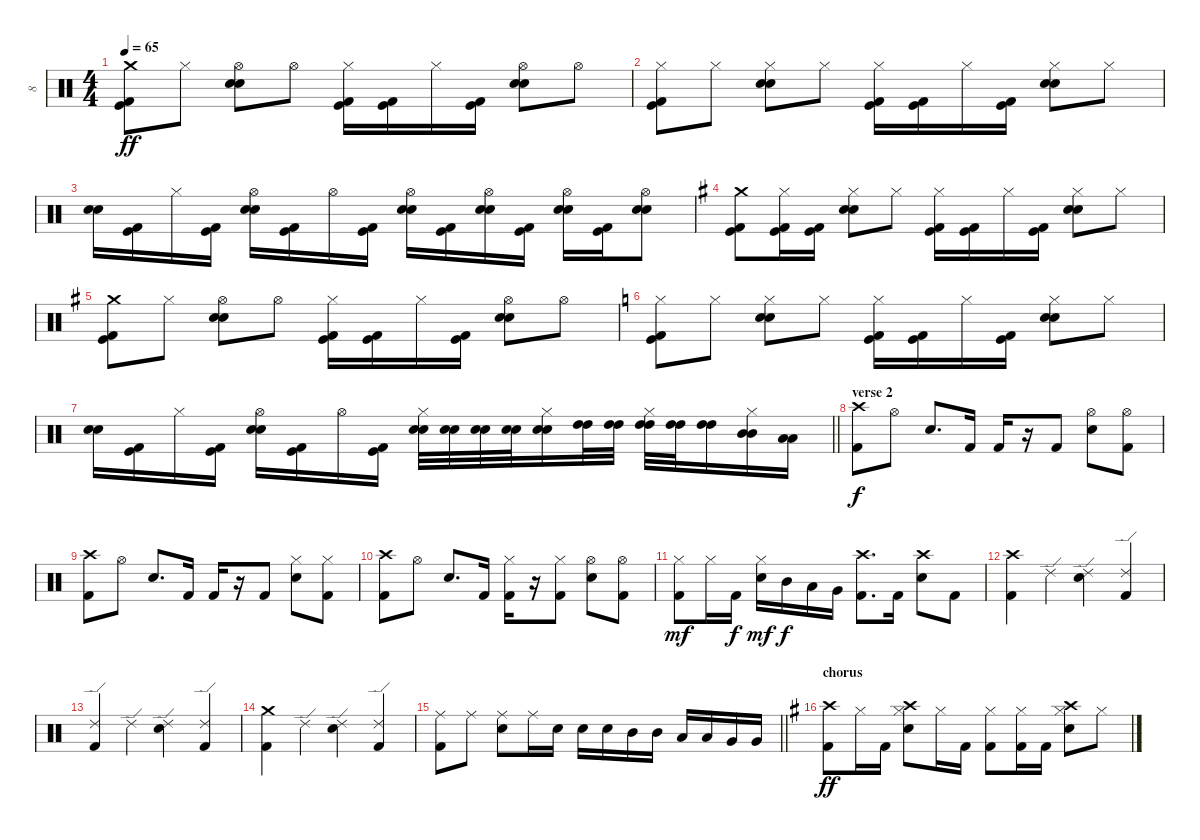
\track ("8" "8") {instrument percussion}
\staff {score}
\articulation defaults
\ts (4 4)
\tempo 65
\clef neutral
\ks c
("Crash medium (hit)" "Kick (hit) 2" "Kick (hit)").8{dy ff} "Hi-Hat (closed)".8 ("Hi-Hat (open)" "Snare (hit) 2" "Electric Snare (hit)").8 "Hi-Hat (open)".8 ("Hi-Hat (closed)" "Kick (hit)" "Kick (hit) 2").16 ("Kick (hit)" "Kick (hit) 2").16 "Hi-Hat (closed)".16 ("Kick (hit)" "Kick (hit) 2").16 ("Hi-Hat (open)" "Snare (hit) 2" "Electric Snare (hit)").8 "Hi-Hat (open)".8 |
("Hi-Hat (closed)" "Kick (hit)" "Kick (hit) 2").8 "Hi-Hat (closed)".8 ("Hi-Hat (closed)" "Snare (hit) 2" "Electric Snare (hit)").8 "Hi-Hat (closed)".8 ("Hi-Hat (closed)" "Kick (hit)" "Kick (hit) 2").16 ("Kick (hit)" "Kick (hit) 2").16 "Hi-Hat (closed)".16 ("Kick (hit)" "Kick (hit) 2").16 ("Hi-Hat (closed)" "Snare (hit) 2" "Electric Snare (hit)").8 "Hi-Hat (closed)".8 |
("Electric Snare (hit)" "Snare (hit) 2").16 ("Kick (hit)" "Kick (hit) 2").16 "Hi-Hat (closed)".16 ("Kick (hit)" "Kick (hit) 2").16 ("Hi-Hat (open)" "Snare (hit) 2" "Electric Snare (hit)").16 ("Kick (hit)" "Kick (hit) 2").16 "Hi-Hat (open)".16 ("Kick (hit)" "Kick (hit) 2").16 ("Hi-Hat (open)" "Electric Snare (hit)" "Snare (hit) 2").16 ("Kick (hit)" "Kick (hit) 2").16 ("Hi-Hat (open)" "Electric Snare (hit)" "Snare (hit) 2").16 ("Kick (hit)" "Kick (hit) 2").16 ("Hi-Hat (open)" "Electric Snare (hit)" "Snare (hit) 2").16 ("Kick (hit)" "Kick (hit) 2").16 ("Hi-Hat (open)" "Electric Snare (hit)" "Snare (hit) 2").8 |
\ks eminor
("Crash medium (hit)" "Kick (hit)" "Kick (hit) 2").8 ("Hi-Hat (closed)" "Kick (hit)" "Kick (hit) 2").16 ("Kick (hit)" "Kick (hit) 2").16 ("Hi-Hat (closed)" "Snare (hit) 2" "Electric Snare (hit)").8 "Hi-Hat (closed)".8 ("Hi-Hat (closed)" "Kick (hit)" "Kick (hit) 2").16 ("Kick (hit)" "Kick (hit) 2").16 "Hi-Hat (closed)".16 ("Kick (hit)" "Kick (hit) 2").16 ("Hi-Hat (closed)" "Snare (hit) 2" "Electric Snare (hit)").8 "Hi-Hat (closed)".8 |
("Crash medium (hit)" "Kick (hit) 2" "Kick (hit)").8 "Hi-Hat (closed)".8 ("Hi-Hat (open)" "Snare (hit) 2" "Electric Snare (hit)").8 "Hi-Hat (open)".8 ("Hi-Hat (closed)" "Kick (hit)" "Kick (hit) 2").16 ("Kick (hit)" "Kick (hit) 2").16 "Hi-Hat (closed)".16 ("Kick (hit)" "Kick (hit) 2").16 ("Hi-Hat (open)" "Snare (hit) 2" "Electric Snare (hit)").8 "Hi-Hat (open)".8 |
\ks c
("Hi-Hat (closed)" "Kick (hit)" "Kick (hit) 2").8 "Hi-Hat (closed)".8 ("Hi-Hat (closed)" "Snare (hit) 2" "Electric Snare (hit)").8 "Hi-Hat (closed)".8 ("Hi-Hat (closed)" "Kick (hit)" "Kick (hit) 2").16 ("Kick (hit)" "Kick (hit) 2").16 "Hi-Hat (closed)".16 ("Kick (hit)" "Kick (hit) 2").16 ("Hi-Hat (closed)" "Snare (hit) 2" "Electric Snare (hit)").8 "Hi-Hat (closed)".8 |
\barLineRight lightlight
("Electric Snare (hit)" "Snare (hit) 2").16 ("Kick (hit)" "Kick (hit) 2").16 "Hi-Hat (closed)".16 ("Kick (hit)" "Kick (hit) 2").16 ("Hi-Hat (open)" "Electric Snare (hit)" "Snare (hit) 2").16 ("Kick (hit)" "Kick (hit) 2").16 "Hi-Hat (open)".16 ("Kick (hit)" "Kick (hit) 2").16 ("Hi-Hat (closed)" "Snare (hit) 2" "Electric Snare (hit)").32 ("Snare (hit) 2" "Electric Snare (hit)").32 ("Snare (hit) 2" "Electric Snare (hit)").32 ("Snare (hit) 2" "Electric Snare (hit)").32 ("Hi-Hat (closed)" "Snare (hit) 2" "Electric Snare (hit)").16 ("High Tom (hit)" "High Tom (hit)").32 ("High Tom (hit)" "High Tom (hit)").32 ("Hi-Hat (closed)" "High Tom (hit)" "High Tom (hit)").32 ("High Tom (hit)" "High Tom (hit)").32 ("High Tom (hit)" "High Tom (hit)").16 ("Hi-Hat (closed)" "Mid Tom (hit)" "Mid Tom (hit)").16 ("Low Tom (hit)" "Low Tom (hit)").16 |
\section ("" "verse 2")
("Kick (hit) 2" "Crash high (hit)").8{dy f} "Hi-Hat (open)".8 "Electric Snare (hit)".8{d} "Kick (hit) 2".16 "Kick (hit) 2".16 r.16 "Kick (hit) 2".8 ("Hi-Hat (open)" "Electric Snare (hit)").8 ("Hi-Hat (open)" "Kick (hit) 2").8 |
("Kick (hit) 2" "Crash high (hit)").8 "Hi-Hat (open)".8 "Electric Snare (hit)".8{d} "Kick (hit) 2".16 "Kick (hit) 2".16 r.16 "Kick (hit) 2".8 ("Hi-Hat (closed)" "Electric Snare (hit)").8 ("Hi-Hat (closed)" "Kick (hit) 2").8 |
("Kick (hit) 2" "Crash high (hit)").8 "Hi-Hat (open)".8 "Electric Snare (hit)".8{d} "Kick (hit) 2".16 ("Hi-Hat (closed)" "Kick (hit) 2").16 r.16 ("Hi-Hat (closed)" "Kick (hit) 2").8 ("Hi-Hat (open)" "Electric Snare (hit)").8 ("Hi-Hat (open)" "Kick (hit) 2").8 |
("Hi-Hat (closed)" "Kick (hit) 2").8{dy mf} "Hi-Hat (closed)".16 "Kick (hit) 2".16{dy f} ("Hi-Hat (closed)" "Snare (hit) 2").16{dy mf} "Mid Tom (hit)".16{dy f} "Low Tom (hit)".16 "Very Low Tom (hit)".16 ("Crash high (hit)" "Kick (hit) 2").8{d} "Kick (hit) 2".16 ("Crash high (hit)" "Snare (hit) 2").8 "Kick (hit) 2".8 |
("Crash high (hit)" "Kick (hit) 2").4 "Ride (edge) 2".4 ("Ride (edge) 2" "Electric Snare (hit)").4 ("Ride (edge) 2" "Kick (hit) 2").4 |
("Ride (edge) 2" "Kick (hit) 2").4 "Ride (edge) 2".4 ("Ride (edge) 2" "Electric Snare (hit)").4 ("Ride (edge) 2" "Kick (hit) 2").4 |
("Crash medium (hit)" "Kick (hit) 2").4 "Ride (edge) 2".4 ("Ride (edge) 2" "Electric Snare (hit)").4 ("Ride (edge) 2" "Kick (hit) 2").4 |
\barLineRight lightlight
("Ride (middle)" "Kick (hit) 2").8 "Ride (middle)".8 ("Ride (middle)" "Electric Snare (hit)").8 "Ride (middle)".16 "Electric Snare (hit)".16 "Electric Snare (hit)".16 "Electric Snare (hit)".16 "Mid Tom (hit)".16 "Mid Tom (hit)".16 "Low Tom (hit)".16 "Low Tom (hit)".16 "Very Low Tom (hit)".16 "Very Low Tom (hit)".16 |
\section ("" "chorus")
\ks eminor
("Kick (hit) 2" "Crash high (hit)").8{dy ff} "Hi-Hat (closed)".16 "Kick (hit) 2".16 ("Snare (hit) 2" "Hi-Hat (closed)" "Crash high (hit)").8 "Hi-Hat (closed)".16 "Kick (hit) 2".16 ("Kick (hit) 2" "Hi-Hat (closed)").8 ("Kick (hit) 2" "Hi-Hat (closed)").16 "Kick (hit) 2".16 ("Snare (hit) 2" "Hi-Hat (closed)" "Crash high (hit)").8 "Hi-Hat (closed)".8
